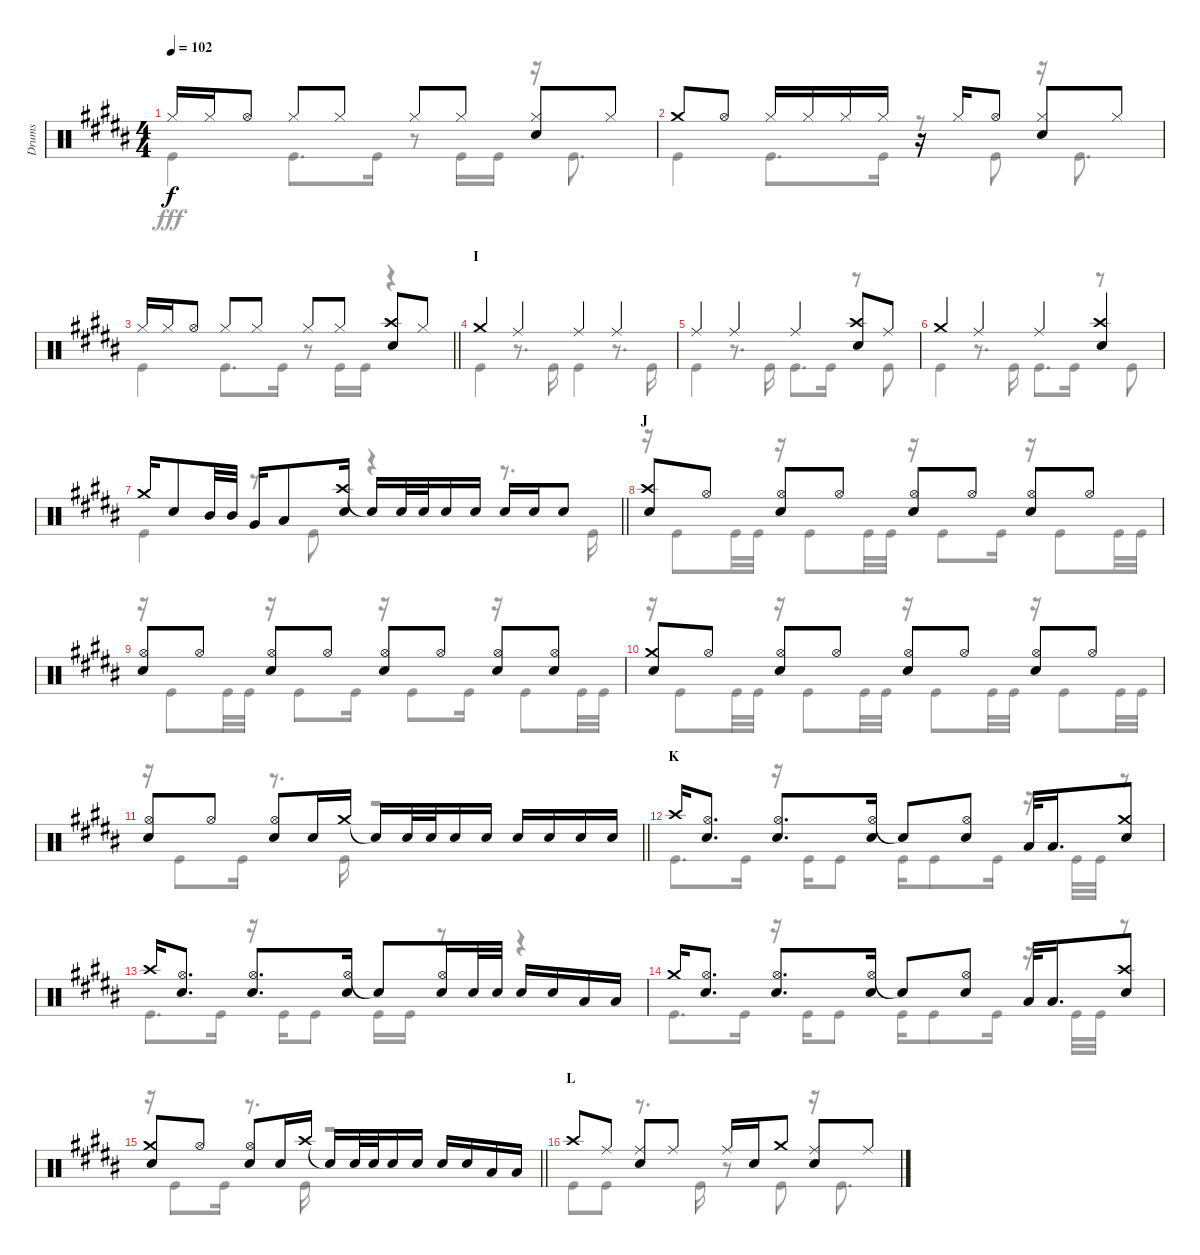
\track ("Drums" "Drums") {instrument percussion}
\staff {score}
\articulation defaults
\voice
\ts (4 4)
\tempo 102
\clef neutral
\ks b "Hi-Hat (closed)".16{dy f} "Hi-Hat (closed)".16 "Hi-Hat (open)".8 "Hi-Hat (closed)".8 "Hi-Hat (closed)".8 "Hi-Hat (closed)".8 "Hi-Hat (closed)".8
("Hi-Hat (closed)" "Snare (hit) 2").8 "Hi-Hat (closed)".8 |
"Crash medium (hit)".8 "Hi-Hat (open)".8 "Hi-Hat (closed)".16 "Hi-Hat (closed)".16 "Hi-Hat (closed)".16 "Hi-Hat (closed)".16 r.16 "Hi-Hat (closed)".16 "Hi-Hat (open)".8 ("Hi-Hat (closed)" "Snare (hit) 2").8 "Hi-Hat (closed)".8 |
\barLineRight lightlight "Hi-Hat (closed)".16 "Hi-Hat (closed)".16 "Hi-Hat (open)".8 "Hi-Hat (closed)".8 "Hi-Hat (closed)".8 "Hi-Hat (closed)".8 "Hi-Hat (closed)".8
("Crash high (hit)" "Snare (hit) 2").8 "Hi-Hat (closed)".8 |
\section ("" "I")
"Crash medium (hit)".4 "Ride (middle)".4 "Ride (middle)".4 "Ride (middle)".4 |
"Ride (middle)".4 "Ride (middle)".4 "Ride (middle)".4 ("Crash high (hit)" "Snare (hit) 2").8 "Ride (middle)".8 |
"Crash medium (hit)".4 "Ride (middle)".4 "Ride (middle)".4 ("Crash high (hit)" "Snare (hit) 2").4 |
\barLineRight lightlight "Crash medium (hit)".16 "Snare (hit) 2".8 "Mid Tom (hit)".32 "Mid Tom (hit)".32 "Very Low Tom (hit)".16 "Low Tom (hit)".8
("Crash high (hit)" "Snare (hit) 2").16 "Snare (hit)"{t}.16 "Snare (hit) 2".32 "Snare (hit) 2".32 "Snare (hit) 2".16 "Snare (hit) 2".16 "Snare (hit) 2".16 "Snare (hit) 2".16 "Snare (hit) 2".8 |
\section ("" "J")
("Crash high (hit)" "Snare (hit) 2").8 "Hi-Hat (open)".8 ("Hi-Hat (open)" "Snare (hit) 2").8 "Hi-Hat (open)".8 ("Hi-Hat (open)" "Snare (hit) 2").8 "Hi-Hat (open)".8 ("Hi-Hat (open)" "Snare (hit) 2").8 "Hi-Hat (open)".8 |
("Hi-Hat (open)" "Snare (hit) 2").8 "Hi-Hat (open)".8 ("Hi-Hat (open)" "Snare (hit) 2").8 "Hi-Hat (open)".8 ("Hi-Hat (open)" "Snare (hit) 2").8 "Hi-Hat (open)".8 ("Hi-Hat (open)" "Snare (hit) 2").8 ("Hi-Hat (open)" "Snare (hit) 2").8 |
("Crash medium (hit)" "Snare (hit) 2").8 "Hi-Hat (open)".8 ("Hi-Hat (open)" "Snare (hit) 2").8 "Hi-Hat (open)".8 ("Hi-Hat (open)" "Snare (hit) 2").8 "Hi-Hat (open)".8 ("Hi-Hat (open)" "Snare (hit) 2").8 "Hi-Hat (open)".8 |
\barLineRight lightlight
("Hi-Hat (open)" "Snare (hit) 2").8 "Hi-Hat (open)".8 ("Hi-Hat (open)" "Snare (hit) 2").8 "Snare (hit) 2".16 "Crash medium (hit)".16 "Snare (hit)"{t}.16 "Snare (hit) 2".32 "Snare (hit) 2".32 "Snare (hit) 2".16 "Snare (hit) 2".16 "Snare (hit) 2".16 "Snare (hit) 2".16 "Snare (hit) 2".16 "Snare (hit) 2".16 |
\section ("" "K")
"Crash high (hit)".16 ("Hi-Hat (open)" "Snare (hit) 2").8{d} ("Hi-Hat (open)" "Snare (hit) 2").8{d} ("Hi-Hat (open)" "Snare (hit) 2").16 "Snare (hit)"{t}.8 ("Hi-Hat (open)" "Snare (hit) 2").8 "Low Tom (hit)".32 "Low Tom (hit)".16{d} ("Crash medium (hit)" "Snare (hit) 2").8 |
"Crash high (hit)".16 ("Hi-Hat (open)" "Snare (hit) 2").8{d} ("Hi-Hat (open)" "Snare (hit) 2").8{d} ("Hi-Hat (open)" "Snare (hit) 2").16 "Snare (hit)"{t}.8 ("Hi-Hat (open)" "Snare (hit) 2").16 "Snare (hit) 2".32 "Snare (hit) 2".32 "Snare (hit) 2".16 "Snare (hit) 2".16 "Low Tom (hit)".16 "Low Tom (hit)".16 |
"Crash medium (hit)".16 ("Hi-Hat (open)" "Snare (hit) 2").8{d} ("Hi-Hat (open)" "Snare (hit) 2").8{d} ("Hi-Hat (open)" "Snare (hit) 2").16 "Snare (hit)"{t}.8 ("Hi-Hat (open)" "Snare (hit) 2").8 "Low Tom (hit)".32 "Low Tom (hit)".16{d} ("Crash high (hit)" "Snare (hit) 2").8 |
\barLineRight lightlight
("Crash medium (hit)" "Snare (hit) 2").8 "Hi-Hat (open)".8 ("Hi-Hat (open)" "Snare (hit) 2").8 "Snare (hit) 2".16 "Crash high (hit)".16 "Snare (hit)"{t}.16 "Snare (hit) 2".32 "Snare (hit) 2".32 "Snare (hit) 2".16 "Snare (hit) 2".16 "Snare (hit) 2".16 "Snare (hit) 2".16 "Low Tom (hit)".16 "Low Tom (hit)".16 |
\section ("" "L")
"Crash high (hit)".8 "Ride (middle)".8 ("Ride (middle)" "Snare (hit) 2").8 "Ride (middle)".8 "Ride (middle)".16 "Snare (hit) 2".16 "Crash medium (hit)".8 ("Ride (middle)" "Snare (hit) 2").8 "Ride (middle)".8
\voice
\clef neutral
\ottava regular
\simile none
\ks b "Kick (hit)".4{dy fff} "Kick (hit)".8{d} "Kick (hit)".16
r.8 "Kick (hit)".16 "Kick (hit)".16 r.16 "Kick (hit)".8{d} |
"Kick (hit)".4 "Kick (hit)".8{d} "Kick (hit)".16 r.8 "Kick (hit)".8 r.16 "Kick (hit)".8{d} |
\barLineRight lightlight "Kick (hit)".4 "Kick (hit)".8{d} "Kick (hit)".16
r.8 "Kick (hit)".16 "Kick (hit)".16 r.4 |
"Kick (hit)".4 r.8{d} "Kick (hit)".16 "Kick (hit)".4 r.8{d} "Kick (hit)".16 |
"Kick (hit)".4 r.8{d} "Kick (hit)".16 "Kick (hit)".8{d} "Kick (hit)".16 r.8 "Kick (hit)".8 |
"Kick (hit)".4 r.8{d} "Kick (hit)".16 "Kick (hit)".8{d} "Kick (hit)".16 r.8 "Kick (hit)".8 |
\barLineRight lightlight "Kick (hit)".4
r.8 "Kick (hit)".8 r.4 r.8{d} "Kick (hit)".16 |
r.16 "Kick (hit)".8 "Kick (hit)".32 "Kick (hit)".32 r.16 "Kick (hit)".8 "Kick (hit)".32 "Kick (hit)".32 r.16 "Kick (hit)".8 "Kick (hit)".16 r.16 "Kick (hit)".8 "Kick (hit)".32 "Kick (hit)".32 |
r.16 "Kick (hit)".8 "Kick (hit)".32 "Kick (hit)".32 r.16 "Kick (hit)".8 "Kick (hit)".16 r.16 "Kick (hit)".8 "Kick (hit)".16 r.16 "Kick (hit)".8 "Kick (hit)".32 "Kick (hit)".32 |
r.16 "Kick (hit)".8 "Kick (hit)".32 "Kick (hit)".32 r.16 "Kick (hit)".8 "Kick (hit)".32 "Kick (hit)".32 r.16 "Kick (hit)".8 "Kick (hit)".32 "Kick (hit)".32 r.16 "Kick (hit)".8 "Kick (hit)".32 "Kick (hit)".32 |
\barLineRight lightlight
r.16 "Kick (hit)".8 "Kick (hit)".16 r.8{d} "Kick (hit)".16 r.2 |
"Kick (hit)".8{d} "Kick (hit)".16 r.16 "Kick (hit)".16 "Kick (hit)".8 "Kick (hit)".16 "Kick (hit)".8 "Kick (hit)".16 r.16 "Kick (hit)".32 "Kick (hit)".32 r.8 |
"Kick (hit)".8{d} "Kick (hit)".16 r.16 "Kick (hit)".16 "Kick (hit)".8 "Kick (hit)".16 "Kick (hit)".16 r.8 r.4 |
"Kick (hit)".8{d} "Kick (hit)".16 r.16 "Kick (hit)".16 "Kick (hit)".8 "Kick (hit)".16 "Kick (hit)".8 "Kick (hit)".16 r.16 "Kick (hit)".32 "Kick (hit)".32 r.8 |
\barLineRight lightlight
r.16 "Kick (hit)".8 "Kick (hit)".16 r.8{d} "Kick (hit)".16 r.2 |
"Kick (hit)".8 "Kick (hit)".8 r.8{d} "Kick (hit)".16 r.8 "Kick (hit)".8 r.16 "Kick (hit)".8{d}
